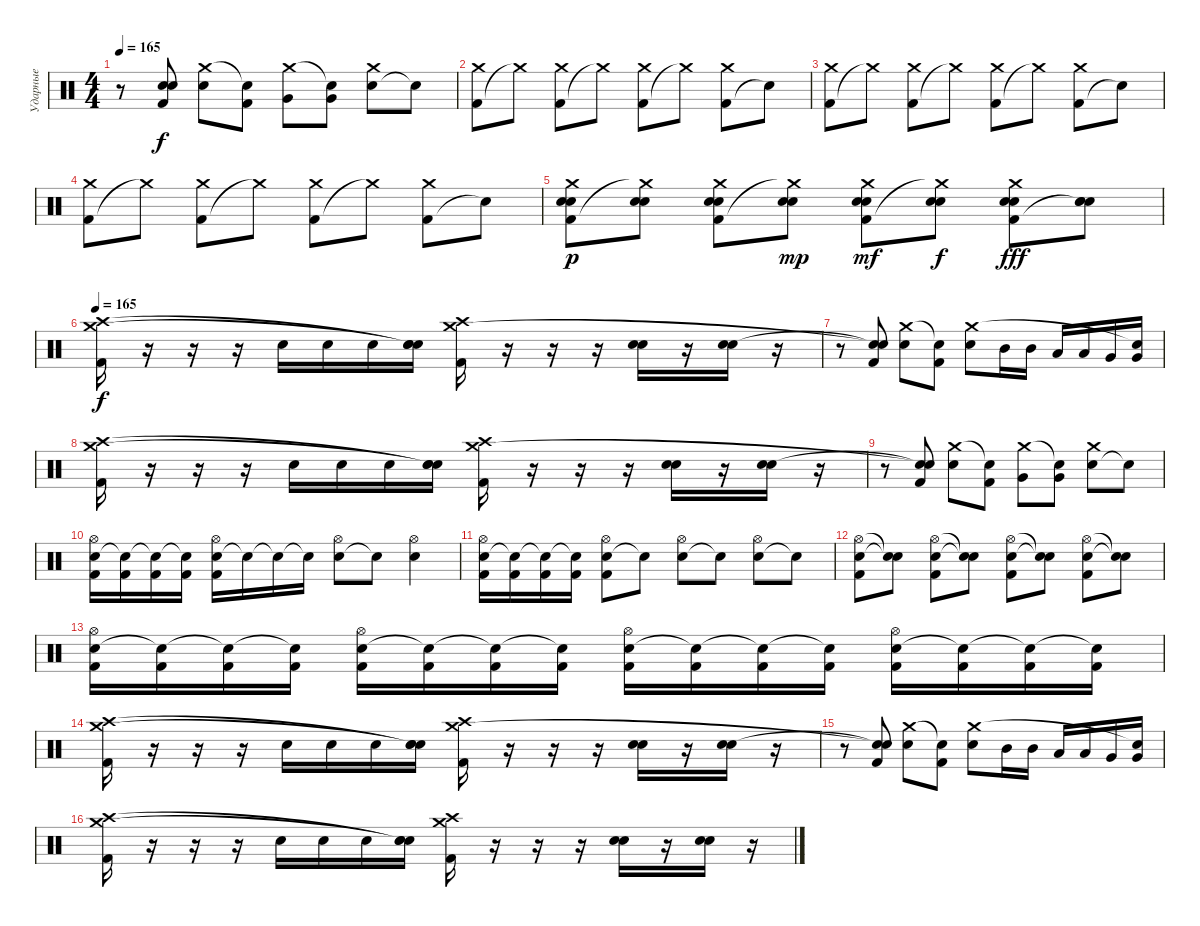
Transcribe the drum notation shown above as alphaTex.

\track ("Ударные" "Ударные") {instrument percussion}
\staff {score}
\articulation defaults
\ts (4 4)
\tempo 165
\clef neutral
\ks c
r.8{dy f} ("Kick (hit) 2" "Snare (hit)"{t} "Snare (hit)"{t}).8 ("Electric Snare (hit)" "Crash medium (hit)").8 ("Kick (hit) 2" "Snare (hit)"{t}).8 ("Very Low Tom (hit)" "Crash medium (hit)").8 ("Very Low Tom (hit)" "Snare (hit)"{t}).8 ("Electric Snare (hit)" "Crash medium (hit)").8 "Snare (hit)"{t}.8 |
("Kick (hit) 2" "Crash medium (hit)").8 "Crash medium (hit)"{t}.8 ("Kick (hit) 2" "Crash medium (hit)").8 "Crash medium (hit)"{t}.8 ("Kick (hit) 2" "Crash medium (hit)").8 "Crash medium (hit)"{t}.8 ("Kick (hit) 2" "Crash medium (hit)").8 "Snare (hit)"{t}.8 |
("Kick (hit) 2" "Crash medium (hit)").8 "Crash medium (hit)"{t}.8 ("Kick (hit) 2" "Crash medium (hit)").8 "Crash medium (hit)"{t}.8 ("Kick (hit) 2" "Crash medium (hit)").8 "Crash medium (hit)"{t}.8 ("Kick (hit) 2" "Crash medium (hit)").8 "Snare (hit)"{t}.8 |
("Kick (hit) 2" "Crash medium (hit)").8 "Crash medium (hit)"{t}.8 ("Kick (hit) 2" "Crash medium (hit)").8 "Crash medium (hit)"{t}.8 ("Kick (hit) 2" "Crash medium (hit)").8 "Crash medium (hit)"{t}.8 ("Kick (hit) 2" "Crash medium (hit)").8 "Snare (hit)"{t}.8 |
("Kick (hit) 2" "Crash medium (hit)" "Electric Snare (hit)" "Electric Snare (hit)").8{dy p} ("Crash medium (hit)"{t} "Electric Snare (hit)" "Electric Snare (hit)").8 ("Kick (hit) 2" "Crash medium (hit)" "Electric Snare (hit)" "Electric Snare (hit)").8 ("Crash medium (hit)"{t} "Electric Snare (hit)" "Electric Snare (hit)").8{dy mp} ("Kick (hit) 2" "Crash medium (hit)" "Electric Snare (hit)" "Electric Snare (hit)").8{dy mf} ("Crash medium (hit)"{t} "Electric Snare (hit)" "Electric Snare (hit)").8{dy f} ("Kick (hit) 2" "Crash medium (hit)" "Electric Snare (hit)" "Electric Snare (hit)").8{dy fff} ("Snare (hit)"{t} "Electric Snare (hit)" "Electric Snare (hit)").8 |
\tempo 165
("Kick (hit) 2" "Crash high (hit)" "Crash medium (hit)").16{dy f} r.16 r.16 r.16 "Electric Snare (hit)".16 "Electric Snare (hit)".16 "Electric Snare (hit)".16 ("Electric Snare (hit)" "Snare (hit)"{t} "Snare (hit)"{t}).16 ("Kick (hit) 2" "Crash high (hit)" "Crash medium (hit)").16 r.16 r.16 r.16 ("Electric Snare (hit)" "Electric Snare (hit)").16{bu 120} r.16 ("Electric Snare (hit)" "Electric Snare (hit)").16{bu 120} r.16 |
r.8 ("Kick (hit) 2" "Snare (hit)"{t} "Snare (hit)"{t}).8 ("Electric Snare (hit)" "Crash medium (hit)").8 ("Kick (hit) 2" "Snare (hit)"{t}).8 ("Electric Snare (hit)" "Crash medium (hit)").8 "Mid Tom (hit)".16 "Mid Tom (hit)".16 "Low Tom (hit)".16 "Low Tom (hit)".16 "Very Low Tom (hit)".16 ("Very Low Tom (hit)" "Snare (hit)"{t}).16 |
("Kick (hit) 2" "Crash high (hit)" "Crash medium (hit)").16 r.16 r.16 r.16 "Electric Snare (hit)".16 "Electric Snare (hit)".16 "Electric Snare (hit)".16 ("Electric Snare (hit)" "Snare (hit)"{t} "Snare (hit)"{t}).16 ("Kick (hit) 2" "Crash high (hit)" "Crash medium (hit)").16 r.16 r.16 r.16 ("Electric Snare (hit)" "Electric Snare (hit)").16{bu 120} r.16 ("Electric Snare (hit)" "Electric Snare (hit)").16{bu 120} r.16 |
r.8 ("Kick (hit) 2" "Snare (hit)"{t} "Snare (hit)"{t}).8 ("Electric Snare (hit)" "Crash medium (hit)").8 ("Kick (hit) 2" "Snare (hit)"{t}).8 ("Very Low Tom (hit)" "Crash medium (hit)").8 ("Very Low Tom (hit)" "Snare (hit)"{t}).8 ("Electric Snare (hit)" "Crash medium (hit)").8 "Snare (hit)"{t}.8 |
("Electric Snare (hit)" "Hi-Hat (open)" "Kick (hit) 2").16 ("Snare (hit)"{t} "Kick (hit) 2").16 ("Snare (hit)"{t} "Kick (hit) 2").16 ("Snare (hit)"{t} "Kick (hit) 2").16 ("Electric Snare (hit)" "Hi-Hat (open)" "Kick (hit) 2").16 "Snare (hit)"{t}.16 "Snare (hit)"{t}.16 "Snare (hit)"{t}.16 ("Electric Snare (hit)" "Hi-Hat (open)").8 "Snare (hit)"{t}.8 ("Electric Snare (hit)" "Hi-Hat (open)").4 |
("Electric Snare (hit)" "Hi-Hat (open)" "Kick (hit) 2").16 ("Snare (hit)"{t} "Kick (hit) 2").16 ("Snare (hit)"{t} "Kick (hit) 2").16 ("Snare (hit)"{t} "Kick (hit) 2").16 ("Electric Snare (hit)" "Hi-Hat (open)" "Kick (hit) 2").8 "Snare (hit)"{t}.8 ("Electric Snare (hit)" "Hi-Hat (open)").8 "Snare (hit)"{t}.8 ("Electric Snare (hit)" "Hi-Hat (open)").8 "Snare (hit)"{t}.8 |
("Electric Snare (hit)" "Hi-Hat (open)" "Kick (hit) 2").8 ("Snare (hit)"{t} "Snare (hit)"{t}).8 ("Electric Snare (hit)" "Hi-Hat (open)" "Kick (hit) 2").8 ("Snare (hit)"{t} "Snare (hit)"{t}).8 ("Electric Snare (hit)" "Hi-Hat (open)" "Kick (hit) 2").8 ("Snare (hit)"{t} "Snare (hit)"{t}).8 ("Electric Snare (hit)" "Hi-Hat (open)" "Kick (hit) 2").8 ("Snare (hit)"{t} "Snare (hit)"{t}).8 |
("Electric Snare (hit)" "Hi-Hat (open)" "Kick (hit) 2").16 ("Snare (hit)"{t} "Kick (hit) 2").16 ("Snare (hit)"{t} "Kick (hit) 2").16 ("Snare (hit)"{t} "Kick (hit) 2").16 ("Electric Snare (hit)" "Hi-Hat (open)" "Kick (hit) 2").16 ("Snare (hit)"{t} "Kick (hit) 2").16 ("Snare (hit)"{t} "Kick (hit) 2").16 ("Snare (hit)"{t} "Kick (hit) 2").16 ("Electric Snare (hit)" "Hi-Hat (open)" "Kick (hit) 2").16 ("Snare (hit)"{t} "Kick (hit) 2").16 ("Snare (hit)"{t} "Kick (hit) 2").16 ("Snare (hit)"{t} "Kick (hit) 2").16 ("Electric Snare (hit)" "Hi-Hat (open)" "Kick (hit) 2").16 ("Snare (hit)"{t} "Kick (hit) 2").16 ("Snare (hit)"{t} "Kick (hit) 2").16 ("Snare (hit)"{t} "Kick (hit) 2").16 |
("Kick (hit) 2" "Crash high (hit)" "Crash medium (hit)").16 r.16 r.16 r.16 "Electric Snare (hit)".16 "Electric Snare (hit)".16 "Electric Snare (hit)".16 ("Electric Snare (hit)" "Snare (hit)"{t} "Snare (hit)"{t}).16 ("Kick (hit) 2" "Crash high (hit)" "Crash medium (hit)").16 r.16 r.16 r.16 ("Electric Snare (hit)" "Electric Snare (hit)").16{bu 120} r.16 ("Electric Snare (hit)" "Electric Snare (hit)").16{bu 120} r.16 |
r.8 ("Kick (hit) 2" "Snare (hit)"{t} "Snare (hit)"{t}).8 ("Electric Snare (hit)" "Crash medium (hit)").8 ("Kick (hit) 2" "Snare (hit)"{t}).8 ("Electric Snare (hit)" "Crash medium (hit)").8 "Mid Tom (hit)".16 "Mid Tom (hit)".16 "Low Tom (hit)".16 "Low Tom (hit)".16 "Very Low Tom (hit)".16 ("Very Low Tom (hit)" "Snare (hit)"{t}).16 |
("Kick (hit) 2" "Crash high (hit)" "Crash medium (hit)").16 r.16 r.16 r.16 "Electric Snare (hit)".16 "Electric Snare (hit)".16 "Electric Snare (hit)".16 ("Electric Snare (hit)" "Snare (hit)"{t} "Snare (hit)"{t}).16 ("Kick (hit) 2" "Crash high (hit)" "Crash medium (hit)").16 r.16 r.16 r.16 ("Electric Snare (hit)" "Electric Snare (hit)").16{bu 120} r.16 ("Electric Snare (hit)" "Electric Snare (hit)").16{bu 120} r.16
